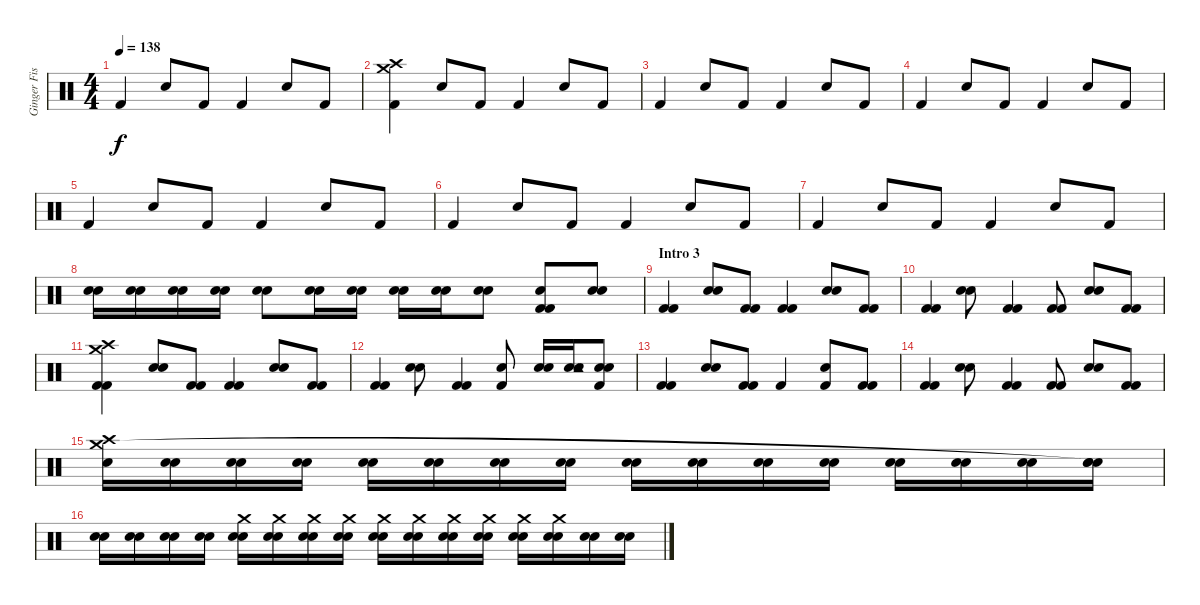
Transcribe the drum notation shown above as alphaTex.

\track ("Ginger Fish [Drums]" "Ginger Fis") {instrument percussion}
\staff {score}
\articulation defaults
\ts (4 4)
\tempo 138
\clef neutral
\ks c "Kick (hit) 2".4{dy f} "Snare (hit) 2".8 "Kick (hit) 2".8 "Kick (hit) 2".4 "Snare (hit) 2".8 "Kick (hit) 2".8
|
("Kick (hit) 2" "Crash high (hit)" "Crash medium (hit)").4 "Snare (hit) 2".8 "Kick (hit) 2".8 "Kick (hit) 2".4 "Snare (hit) 2".8 "Kick (hit) 2".8 |
"Kick (hit) 2".4 "Snare (hit) 2".8 "Kick (hit) 2".8 "Kick (hit) 2".4 "Snare (hit) 2".8 "Kick (hit) 2".8 |
"Kick (hit) 2".4 "Snare (hit) 2".8 "Kick (hit) 2".8 "Kick (hit) 2".4 "Snare (hit) 2".8 "Kick (hit) 2".8 |
"Kick (hit) 2".4 "Snare (hit) 2".8 "Kick (hit) 2".8 "Kick (hit) 2".4 "Snare (hit) 2".8 "Kick (hit) 2".8 |
"Kick (hit) 2".4 "Snare (hit) 2".8 "Kick (hit) 2".8 "Kick (hit) 2".4 "Snare (hit) 2".8 "Kick (hit) 2".8 |
"Kick (hit) 2".4 "Snare (hit) 2".8 "Kick (hit) 2".8 "Kick (hit) 2".4 "Snare (hit) 2".8 "Kick (hit) 2".8 |
("Snare (hit) 2" "Snare (hit) 2").16 ("Snare (hit) 2" "Snare (hit) 2").16 ("Snare (hit) 2" "Snare (hit) 2").16 ("Snare (hit) 2" "Snare (hit) 2").16 ("Snare (hit) 2" "Snare (hit) 2").8 ("Snare (hit) 2" "Snare (hit) 2").16 ("Snare (hit) 2" "Snare (hit) 2").16 ("Snare (hit) 2" "Snare (hit) 2").16 ("Snare (hit) 2" "Snare (hit) 2").16 ("Snare (hit) 2" "Snare (hit) 2").8 ("Snare (hit) 2" "Kick (hit) 2" "Kick (hit) 2").8 ("Snare (hit) 2" "Snare (hit) 2").8 |
\section ("" "Intro 3")
("Kick (hit) 2" "Kick (hit) 2").4 ("Snare (hit) 2" "Snare (hit) 2").8 ("Kick (hit) 2" "Kick (hit) 2").8 ("Kick (hit) 2" "Kick (hit) 2").4 ("Snare (hit) 2" "Snare (hit) 2").8 ("Kick (hit) 2" "Kick (hit) 2").8 |
("Kick (hit) 2" "Kick (hit) 2").4 ("Snare (hit) 2" "Snare (hit) 2").8 ("Kick (hit) 2" "Kick (hit) 2").4 ("Kick (hit) 2" "Kick (hit) 2").8 ("Snare (hit) 2" "Snare (hit) 2").8 ("Kick (hit) 2" "Kick (hit) 2").8 |
("Kick (hit) 2" "Kick (hit) 2" "Crash high (hit)" "Crash medium (hit)").4 ("Snare (hit) 2" "Snare (hit) 2").8 ("Kick (hit) 2" "Kick (hit) 2").8 ("Kick (hit) 2" "Kick (hit) 2").4 ("Snare (hit) 2" "Snare (hit) 2").8 ("Kick (hit) 2" "Kick (hit) 2").8 |
("Kick (hit) 2" "Kick (hit) 2").4 ("Snare (hit) 2" "Snare (hit) 2").8 ("Kick (hit) 2" "Kick (hit) 2").4 ("Kick (hit) 2" "Snare (hit) 2").8 ("Snare (hit) 2" "Snare (hit) 2").16 ("Snare (hit) 2" "Snare (hit) 2" "Tambourine (hit)").16 ("Kick (hit) 2" "Snare (hit) 2" "Snare (hit) 2").8 |
("Kick (hit) 2" "Kick (hit) 2").4 ("Snare (hit) 2" "Snare (hit) 2").8 ("Kick (hit) 2" "Kick (hit) 2").8 "Kick (hit) 2".4 ("Snare (hit) 2" "Kick (hit) 2").8 ("Kick (hit) 2" "Kick (hit) 2").8 |
("Kick (hit) 2" "Kick (hit) 2").4 ("Snare (hit) 2" "Snare (hit) 2").8 ("Kick (hit) 2" "Kick (hit) 2").4 ("Kick (hit) 2" "Kick (hit) 2").8 ("Snare (hit) 2" "Snare (hit) 2").8 ("Kick (hit) 2" "Kick (hit) 2").8 |
("Snare (hit) 2" "Crash high (hit)" "Crash medium (hit)").16 ("Snare (hit) 2" "Snare (hit) 2").16 ("Snare (hit) 2" "Snare (hit) 2").16 ("Snare (hit) 2" "Snare (hit) 2").16 ("Snare (hit) 2" "Snare (hit) 2").16 ("Snare (hit) 2" "Snare (hit) 2").16 ("Snare (hit) 2" "Snare (hit) 2").16 ("Snare (hit) 2" "Snare (hit) 2").16 ("Snare (hit) 2" "Snare (hit) 2").16 ("Snare (hit) 2" "Snare (hit) 2").16 ("Snare (hit) 2" "Snare (hit) 2").16 ("Snare (hit) 2" "Snare (hit) 2").16 ("Snare (hit) 2" "Snare (hit) 2").16 ("Snare (hit) 2" "Snare (hit) 2").16 ("Snare (hit) 2" "Snare (hit) 2").16 ("Snare (hit) 2" "Snare (hit) 2" "Snare (hit)"{t}).16 |
("Snare (hit) 2" "Snare (hit) 2").16 ("Snare (hit) 2" "Snare (hit) 2").16 ("Snare (hit) 2" "Snare (hit) 2").16 ("Snare (hit) 2" "Snare (hit) 2").16 ("Snare (hit) 2" "Snare (hit) 2" "Crash medium (hit)").16 ("Snare (hit) 2" "Snare (hit) 2" "Crash medium (hit)").16 ("Snare (hit) 2" "Snare (hit) 2" "Crash medium (hit)").16 ("Snare (hit) 2" "Snare (hit) 2" "Crash medium (hit)").16 ("Snare (hit) 2" "Snare (hit) 2" "Crash medium (hit)").16 ("Snare (hit) 2" "Snare (hit) 2" "Crash medium (hit)").16 ("Snare (hit) 2" "Snare (hit) 2" "Crash medium (hit)").16 ("Snare (hit) 2" "Snare (hit) 2" "Crash medium (hit)").16 ("Snare (hit) 2" "Snare (hit) 2" "Crash medium (hit)").16 ("Snare (hit) 2" "Snare (hit) 2" "Crash medium (hit)").16 ("Snare (hit) 2" "Snare (hit) 2").16 ("Snare (hit) 2" "Snare (hit) 2").16
